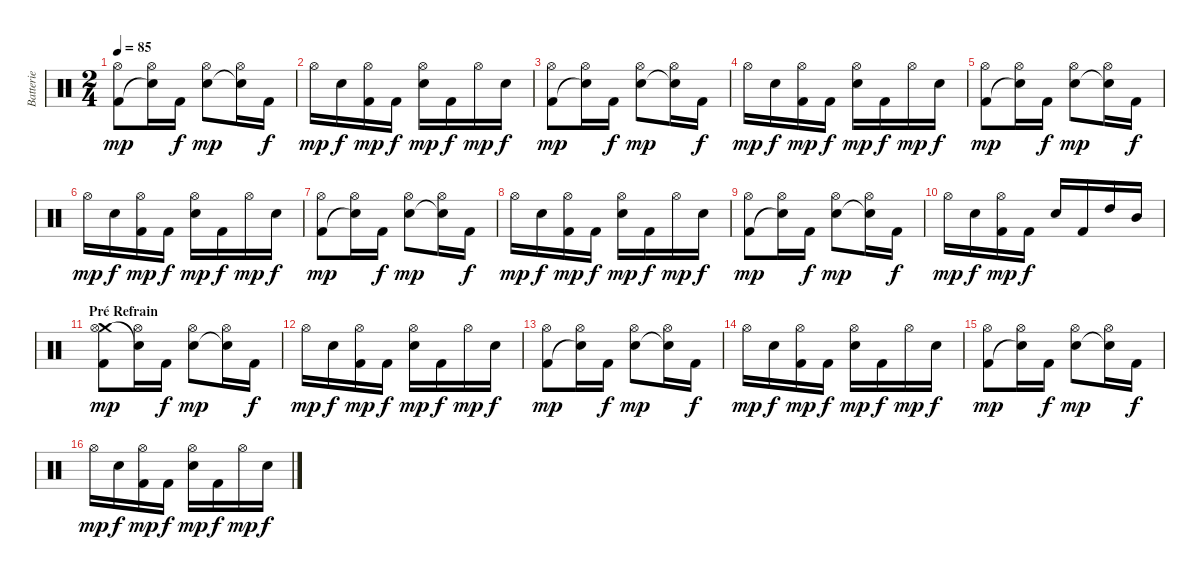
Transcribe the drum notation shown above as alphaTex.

\track ("Batterie" "Batterie") {instrument percussion}
\staff {score}
\articulation defaults
\ts (2 4)
\tempo 85
\clef neutral
\ks c
("Hi-Hat (open)" "Kick (hit) 2").8{dy mp} ("Hi-Hat (open)" "Snare (hit)"{t}).16 "Kick (hit) 2".16{dy f} ("Electric Snare (hit)" "Hi-Hat (open)").8{dy mp} ("Snare (hit)"{t} "Hi-Hat (open)").16 "Kick (hit) 2".16{dy f} |
"Hi-Hat (open)".16{dy mp} "Electric Snare (hit)".16{dy f} ("Hi-Hat (open)" "Kick (hit) 2").16{dy mp} "Kick (hit) 2".16{dy f} ("Electric Snare (hit)" "Hi-Hat (open)").16{dy mp} "Kick (hit) 2".16{dy f} "Hi-Hat (open)".16{dy mp} "Electric Snare (hit)".16{dy f} |
("Hi-Hat (open)" "Kick (hit) 2").8{dy mp} ("Hi-Hat (open)" "Snare (hit)"{t}).16 "Kick (hit) 2".16{dy f} ("Electric Snare (hit)" "Hi-Hat (open)").8{dy mp} ("Snare (hit)"{t} "Hi-Hat (open)").16 "Kick (hit) 2".16{dy f} |
"Hi-Hat (open)".16{dy mp} "Electric Snare (hit)".16{dy f} ("Hi-Hat (open)" "Kick (hit) 2").16{dy mp} "Kick (hit) 2".16{dy f} ("Electric Snare (hit)" "Hi-Hat (open)").16{dy mp} "Kick (hit) 2".16{dy f} "Hi-Hat (open)".16{dy mp} "Electric Snare (hit)".16{dy f} |
("Hi-Hat (open)" "Kick (hit) 2").8{dy mp} ("Hi-Hat (open)" "Snare (hit)"{t}).16 "Kick (hit) 2".16{dy f} ("Electric Snare (hit)" "Hi-Hat (open)").8{dy mp} ("Snare (hit)"{t} "Hi-Hat (open)").16 "Kick (hit) 2".16{dy f} |
"Hi-Hat (open)".16{dy mp} "Electric Snare (hit)".16{dy f} ("Hi-Hat (open)" "Kick (hit) 2").16{dy mp} "Kick (hit) 2".16{dy f} ("Electric Snare (hit)" "Hi-Hat (open)").16{dy mp} "Kick (hit) 2".16{dy f} "Hi-Hat (open)".16{dy mp} "Electric Snare (hit)".16{dy f} |
("Hi-Hat (open)" "Kick (hit) 2").8{dy mp} ("Hi-Hat (open)" "Snare (hit)"{t}).16 "Kick (hit) 2".16{dy f} ("Electric Snare (hit)" "Hi-Hat (open)").8{dy mp} ("Snare (hit)"{t} "Hi-Hat (open)").16 "Kick (hit) 2".16{dy f} |
"Hi-Hat (open)".16{dy mp} "Electric Snare (hit)".16{dy f} ("Hi-Hat (open)" "Kick (hit) 2").16{dy mp} "Kick (hit) 2".16{dy f} ("Electric Snare (hit)" "Hi-Hat (open)").16{dy mp} "Kick (hit) 2".16{dy f} "Hi-Hat (open)".16{dy mp} "Electric Snare (hit)".16{dy f} |
("Hi-Hat (open)" "Kick (hit) 2").8{dy mp} ("Hi-Hat (open)" "Snare (hit)"{t}).16 "Kick (hit) 2".16{dy f} ("Electric Snare (hit)" "Hi-Hat (open)").8{dy mp} ("Snare (hit)"{t} "Hi-Hat (open)").16 "Kick (hit) 2".16{dy f} |
"Hi-Hat (open)".16{dy mp} "Electric Snare (hit)".16{dy f} ("Hi-Hat (open)" "Kick (hit) 2").16{dy mp} "Kick (hit) 2".16{dy f} "Electric Snare (hit)".16 "Kick (hit) 2".16 "High Tom (hit)".16 "Mid Tom (hit)".16 |
\section ("" "Pré Refrain")
("Crash medium (hit)" "Hi-Hat (open)" "Kick (hit) 2").8{dy mp} ("Hi-Hat (open)" "Snare (hit)"{t}).16 "Kick (hit) 2".16{dy f} ("Electric Snare (hit)" "Hi-Hat (open)").8{dy mp} ("Snare (hit)"{t} "Hi-Hat (open)").16 "Kick (hit) 2".16{dy f} |
"Hi-Hat (open)".16{dy mp} "Electric Snare (hit)".16{dy f} ("Hi-Hat (open)" "Kick (hit) 2").16{dy mp} "Kick (hit) 2".16{dy f} ("Electric Snare (hit)" "Hi-Hat (open)").16{dy mp} "Kick (hit) 2".16{dy f} "Hi-Hat (open)".16{dy mp} "Electric Snare (hit)".16{dy f} |
("Hi-Hat (open)" "Kick (hit) 2").8{dy mp} ("Hi-Hat (open)" "Snare (hit)"{t}).16 "Kick (hit) 2".16{dy f} ("Electric Snare (hit)" "Hi-Hat (open)").8{dy mp} ("Snare (hit)"{t} "Hi-Hat (open)").16 "Kick (hit) 2".16{dy f} |
"Hi-Hat (open)".16{dy mp} "Electric Snare (hit)".16{dy f} ("Hi-Hat (open)" "Kick (hit) 2").16{dy mp} "Kick (hit) 2".16{dy f} ("Electric Snare (hit)" "Hi-Hat (open)").16{dy mp} "Kick (hit) 2".16{dy f} "Hi-Hat (open)".16{dy mp} "Electric Snare (hit)".16{dy f} |
("Hi-Hat (open)" "Kick (hit) 2").8{dy mp} ("Hi-Hat (open)" "Snare (hit)"{t}).16 "Kick (hit) 2".16{dy f} ("Electric Snare (hit)" "Hi-Hat (open)").8{dy mp} ("Snare (hit)"{t} "Hi-Hat (open)").16 "Kick (hit) 2".16{dy f} |
"Hi-Hat (open)".16{dy mp} "Electric Snare (hit)".16{dy f} ("Hi-Hat (open)" "Kick (hit) 2").16{dy mp} "Kick (hit) 2".16{dy f} ("Electric Snare (hit)" "Hi-Hat (open)").16{dy mp} "Kick (hit) 2".16{dy f} "Hi-Hat (open)".16{dy mp} "Electric Snare (hit)".16{dy f}
